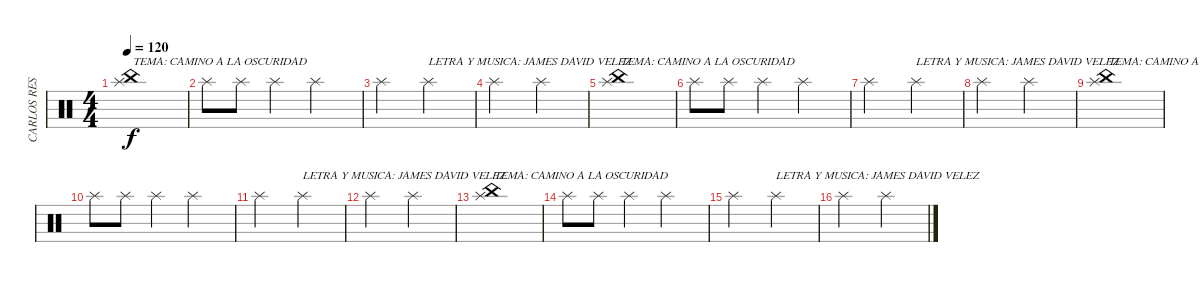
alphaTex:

\track ("CARLOS RESTREPO DARK  BATERIA" "CARLOS RES") {instrument percussion}
\staff {score}
\articulation defaults
\ts (4 4)
\tempo 120
\clef neutral
\ks c
("Splash (hit)" "China (hit)").1{txt "TEMA: CAMINO A LA OSCURIDAD" dy f} |
"Splash (hit)".8 "Splash (hit)".8 "Splash (hit)".4 "Splash (hit)".2 |
"Splash (hit)".2 "Splash (hit)".2{txt "LETRA Y MUSICA: JAMES DAVID VELEZ "} |
"Splash (hit)".2 "Splash (hit)".2 |
("Splash (hit)" "China (hit)").1{txt "TEMA: CAMINO A LA OSCURIDAD"} |
"Splash (hit)".8 "Splash (hit)".8 "Splash (hit)".4 "Splash (hit)".2 |
"Splash (hit)".2 "Splash (hit)".2{txt "LETRA Y MUSICA: JAMES DAVID VELEZ "} |
"Splash (hit)".2 "Splash (hit)".2 |
("Splash (hit)" "China (hit)").1{txt "TEMA: CAMINO A LA OSCURIDAD"} |
"Splash (hit)".8 "Splash (hit)".8 "Splash (hit)".4 "Splash (hit)".2 |
"Splash (hit)".2 "Splash (hit)".2{txt "LETRA Y MUSICA: JAMES DAVID VELEZ "} |
"Splash (hit)".2 "Splash (hit)".2 |
("Splash (hit)" "China (hit)").1{txt "TEMA: CAMINO A LA OSCURIDAD"} |
"Splash (hit)".8 "Splash (hit)".8 "Splash (hit)".4 "Splash (hit)".2 |
"Splash (hit)".2 "Splash (hit)".2{txt "LETRA Y MUSICA: JAMES DAVID VELEZ "} |
"Splash (hit)".2 "Splash (hit)".2
